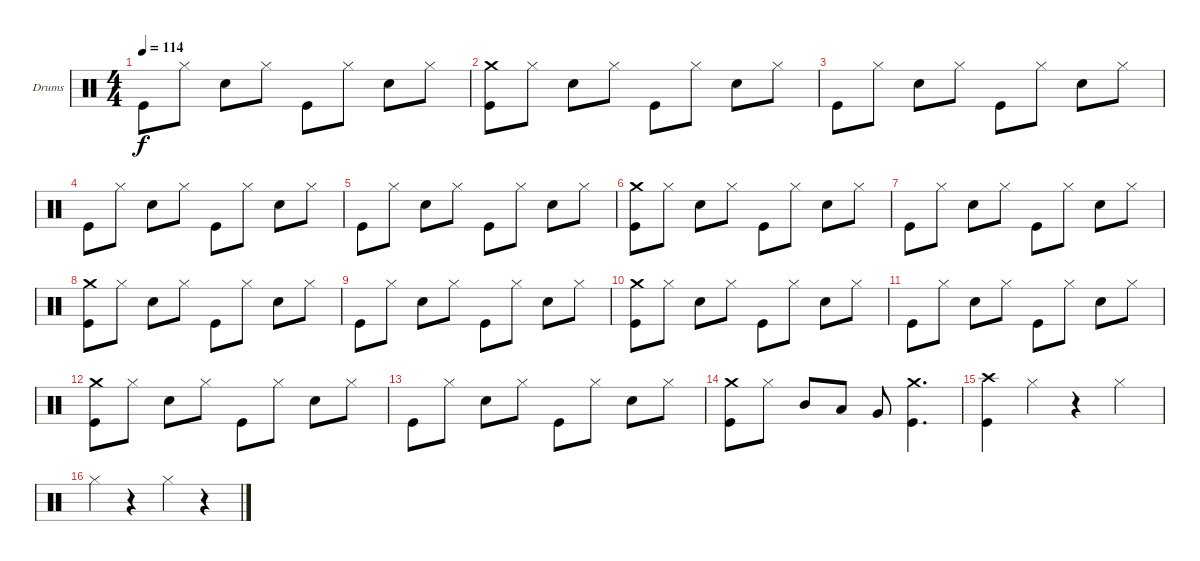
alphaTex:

\defaultSystemsLayout 4
\bracketExtendMode groupsimilarinstruments
\firstSystemTrackNameOrientation horizontal
\otherSystemsTrackNameOrientation horizontal
\track ("Е. Кулаков" "Drums") {instrument percussion}
\staff {score}
\articulation defaults
\ts (4 4)
\tempo 114
\clef neutral
\ks c "Kick (hit)".8{dy f} "Hi-Hat (closed)".8 "Snare (hit) 2".8 "Hi-Hat (closed)".8 "Kick (hit)".8 "Hi-Hat (closed)".8 "Snare (hit) 2".8 "Hi-Hat (closed)".8
|
("Kick (hit)" "Crash medium (hit)").8 "Hi-Hat (closed)".8 "Snare (hit) 2".8 "Hi-Hat (closed)".8 "Kick (hit)".8 "Hi-Hat (closed)".8 "Snare (hit) 2".8 "Hi-Hat (closed)".8 |
"Kick (hit)".8 "Hi-Hat (closed)".8 "Snare (hit) 2".8 "Hi-Hat (closed)".8 "Kick (hit)".8 "Hi-Hat (closed)".8 "Snare (hit) 2".8 "Hi-Hat (closed)".8 |
"Kick (hit)".8 "Hi-Hat (closed)".8 "Snare (hit) 2".8 "Hi-Hat (closed)".8 "Kick (hit)".8 "Hi-Hat (closed)".8 "Snare (hit) 2".8 "Hi-Hat (closed)".8 |
"Kick (hit)".8 "Hi-Hat (closed)".8 "Snare (hit) 2".8 "Hi-Hat (closed)".8 "Kick (hit)".8 "Hi-Hat (closed)".8 "Snare (hit) 2".8 "Hi-Hat (closed)".8 |
("Kick (hit)" "Crash medium (hit)").8 "Hi-Hat (closed)".8 "Snare (hit) 2".8 "Hi-Hat (closed)".8 "Kick (hit)".8 "Hi-Hat (closed)".8 "Snare (hit) 2".8 "Hi-Hat (closed)".8 |
"Kick (hit)".8 "Hi-Hat (closed)".8 "Snare (hit) 2".8 "Hi-Hat (closed)".8 "Kick (hit)".8 "Hi-Hat (closed)".8 "Snare (hit) 2".8 "Hi-Hat (closed)".8 |
("Kick (hit)" "Crash medium (hit)").8 "Hi-Hat (closed)".8 "Snare (hit) 2".8 "Hi-Hat (closed)".8 "Kick (hit)".8 "Hi-Hat (closed)".8 "Snare (hit) 2".8 "Hi-Hat (closed)".8 |
"Kick (hit)".8 "Hi-Hat (closed)".8 "Snare (hit) 2".8 "Hi-Hat (closed)".8 "Kick (hit)".8 "Hi-Hat (closed)".8 "Snare (hit) 2".8 "Hi-Hat (closed)".8 |
("Kick (hit)" "Crash medium (hit)").8 "Hi-Hat (closed)".8 "Snare (hit) 2".8 "Hi-Hat (closed)".8 "Kick (hit)".8 "Hi-Hat (closed)".8 "Snare (hit) 2".8 "Hi-Hat (closed)".8 |
"Kick (hit)".8 "Hi-Hat (closed)".8 "Snare (hit) 2".8 "Hi-Hat (closed)".8 "Kick (hit)".8 "Hi-Hat (closed)".8 "Snare (hit) 2".8 "Hi-Hat (closed)".8 |
("Kick (hit)" "Crash medium (hit)").8 "Hi-Hat (closed)".8 "Snare (hit) 2".8 "Hi-Hat (closed)".8 "Kick (hit)".8 "Hi-Hat (closed)".8 "Snare (hit) 2".8 "Hi-Hat (closed)".8 |
"Kick (hit)".8 "Hi-Hat (closed)".8 "Snare (hit) 2".8 "Hi-Hat (closed)".8 "Kick (hit)".8 "Hi-Hat (closed)".8 "Snare (hit) 2".8 "Hi-Hat (closed)".8 |
("Kick (hit)" "Crash medium (hit)").8 "Hi-Hat (closed)".8 "Mid Tom (hit)".8 "Low Tom (hit)".8 "Very Low Tom (hit)".8 ("Kick (hit)" "Crash medium (hit)").4{d} |
("Kick (hit)" "Crash high (hit)").4 "Hi-Hat (closed)".4 r.4 "Hi-Hat (closed)".4 |
"Hi-Hat (closed)".4 r.4 "Hi-Hat (closed)".4 r.4
